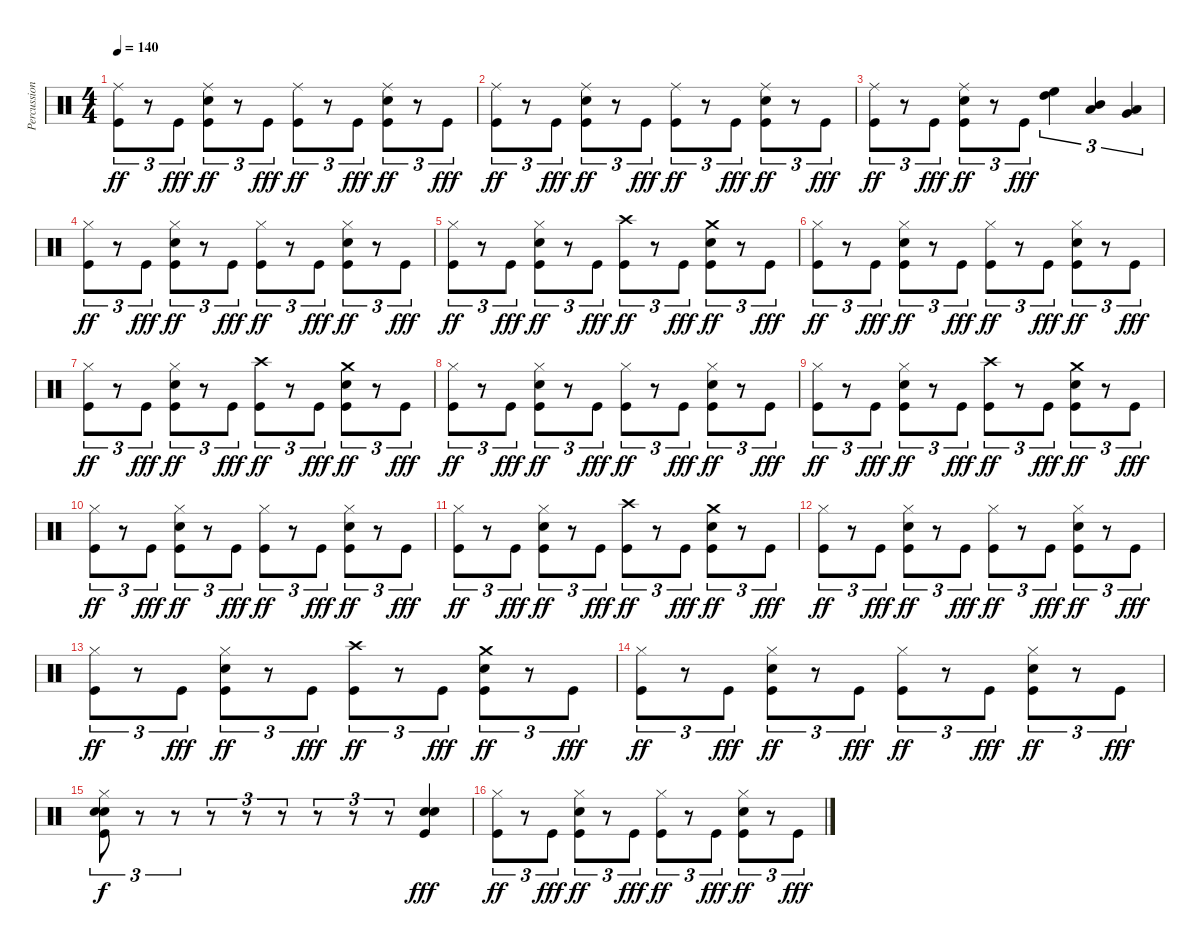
\track ("Percussions" "Percussion") {instrument percussion}
\staff {score}
\articulation defaults
\ts (4 4)
\tempo 140
\clef neutral
\ks c
("Ride (middle)" "Kick (hit)").8{tu (3 2) dy ff} r.8{tu (3 2)} "Kick (hit)".8{tu (3 2) dy fff} ("Ride (middle)" "Snare (hit) 2" "Kick (hit)").8{tu (3 2) dy ff} r.8{tu (3 2)} "Kick (hit)".8{tu (3 2) dy fff} ("Ride (middle)" "Kick (hit)").8{tu (3 2) dy ff} r.8{tu (3 2)} "Kick (hit)".8{tu (3 2) dy fff} ("Ride (middle)" "Snare (hit) 2" "Kick (hit)").8{tu (3 2) dy ff} r.8{tu (3 2)} "Kick (hit)".8{tu (3 2) dy fff} |
("Ride (middle)" "Kick (hit)").8{tu (3 2) dy ff} r.8{tu (3 2)} "Kick (hit)".8{tu (3 2) dy fff} ("Ride (middle)" "Snare (hit) 2" "Kick (hit)").8{tu (3 2) dy ff} r.8{tu (3 2)} "Kick (hit)".8{tu (3 2) dy fff} ("Ride (middle)" "Kick (hit)").8{tu (3 2) dy ff} r.8{tu (3 2)} "Kick (hit)".8{tu (3 2) dy fff} ("Ride (middle)" "Snare (hit) 2" "Kick (hit)").8{tu (3 2) dy ff} r.8{tu (3 2)} "Kick (hit)".8{tu (3 2) dy fff} |
("Ride (middle)" "Kick (hit)").8{tu (3 2) dy ff} r.8{tu (3 2)} "Kick (hit)".8{tu (3 2) dy fff} ("Ride (middle)" "Snare (hit) 2" "Kick (hit)").8{tu (3 2) dy ff} r.8{tu (3 2)} "Kick (hit)".8{tu (3 2) dy fff} ("High Floor Tom (hit)" "High Tom (hit)").4{tu (3 2)} ("Mid Tom (hit)" "Low Tom (hit)").4{tu (3 2)} ("Very Low Tom (hit)" "Low Floor Tom (hit)").4{tu (3 2)} |
("Hi-Hat (closed)" "Kick (hit)").8{tu (3 2) dy ff} r.8{tu (3 2)} "Kick (hit)".8{tu (3 2) dy fff} ("Hi-Hat (closed)" "Snare (hit) 2" "Kick (hit)").8{tu (3 2) dy ff} r.8{tu (3 2)} "Kick (hit)".8{tu (3 2) dy fff} ("Hi-Hat (closed)" "Kick (hit)").8{tu (3 2) dy ff} r.8{tu (3 2)} "Kick (hit)".8{tu (3 2) dy fff} ("Hi-Hat (closed)" "Snare (hit) 2" "Kick (hit)").8{tu (3 2) dy ff} r.8{tu (3 2)} "Kick (hit)".8{tu (3 2) dy fff} |
("Hi-Hat (closed)" "Kick (hit)").8{tu (3 2) dy ff} r.8{tu (3 2)} "Kick (hit)".8{tu (3 2) dy fff} ("Hi-Hat (closed)" "Snare (hit) 2" "Kick (hit)").8{tu (3 2) dy ff} r.8{tu (3 2)} "Kick (hit)".8{tu (3 2) dy fff} ("Crash high (hit)" "Kick (hit)").8{tu (3 2) dy ff} r.8{tu (3 2)} "Kick (hit)".8{tu (3 2) dy fff} ("Crash medium (hit)" "Snare (hit) 2" "Kick (hit)").8{tu (3 2) dy ff} r.8{tu (3 2)} "Kick (hit)".8{tu (3 2) dy fff} |
("Hi-Hat (closed)" "Kick (hit)").8{tu (3 2) dy ff} r.8{tu (3 2)} "Kick (hit)".8{tu (3 2) dy fff} ("Hi-Hat (closed)" "Snare (hit) 2" "Kick (hit)").8{tu (3 2) dy ff} r.8{tu (3 2)} "Kick (hit)".8{tu (3 2) dy fff} ("Hi-Hat (closed)" "Kick (hit)").8{tu (3 2) dy ff} r.8{tu (3 2)} "Kick (hit)".8{tu (3 2) dy fff} ("Hi-Hat (closed)" "Snare (hit) 2" "Kick (hit)").8{tu (3 2) dy ff} r.8{tu (3 2)} "Kick (hit)".8{tu (3 2) dy fff} |
("Hi-Hat (closed)" "Kick (hit)").8{tu (3 2) dy ff} r.8{tu (3 2)} "Kick (hit)".8{tu (3 2) dy fff} ("Hi-Hat (closed)" "Snare (hit) 2" "Kick (hit)").8{tu (3 2) dy ff} r.8{tu (3 2)} "Kick (hit)".8{tu (3 2) dy fff} ("Crash high (hit)" "Kick (hit)").8{tu (3 2) dy ff} r.8{tu (3 2)} "Kick (hit)".8{tu (3 2) dy fff} ("Crash medium (hit)" "Snare (hit) 2" "Kick (hit)").8{tu (3 2) dy ff} r.8{tu (3 2)} "Kick (hit)".8{tu (3 2) dy fff} |
("Hi-Hat (closed)" "Kick (hit)").8{tu (3 2) dy ff} r.8{tu (3 2)} "Kick (hit)".8{tu (3 2) dy fff} ("Hi-Hat (closed)" "Snare (hit) 2" "Kick (hit)").8{tu (3 2) dy ff} r.8{tu (3 2)} "Kick (hit)".8{tu (3 2) dy fff} ("Hi-Hat (closed)" "Kick (hit)").8{tu (3 2) dy ff} r.8{tu (3 2)} "Kick (hit)".8{tu (3 2) dy fff} ("Hi-Hat (closed)" "Snare (hit) 2" "Kick (hit)").8{tu (3 2) dy ff} r.8{tu (3 2)} "Kick (hit)".8{tu (3 2) dy fff} |
("Hi-Hat (closed)" "Kick (hit)").8{tu (3 2) dy ff} r.8{tu (3 2)} "Kick (hit)".8{tu (3 2) dy fff} ("Hi-Hat (closed)" "Snare (hit) 2" "Kick (hit)").8{tu (3 2) dy ff} r.8{tu (3 2)} "Kick (hit)".8{tu (3 2) dy fff} ("Crash high (hit)" "Kick (hit)").8{tu (3 2) dy ff} r.8{tu (3 2)} "Kick (hit)".8{tu (3 2) dy fff} ("Crash medium (hit)" "Snare (hit) 2" "Kick (hit)").8{tu (3 2) dy ff} r.8{tu (3 2)} "Kick (hit)".8{tu (3 2) dy fff} |
("Hi-Hat (closed)" "Kick (hit)").8{tu (3 2) dy ff} r.8{tu (3 2)} "Kick (hit)".8{tu (3 2) dy fff} ("Hi-Hat (closed)" "Snare (hit) 2" "Kick (hit)").8{tu (3 2) dy ff} r.8{tu (3 2)} "Kick (hit)".8{tu (3 2) dy fff} ("Hi-Hat (closed)" "Kick (hit)").8{tu (3 2) dy ff} r.8{tu (3 2)} "Kick (hit)".8{tu (3 2) dy fff} ("Hi-Hat (closed)" "Snare (hit) 2" "Kick (hit)").8{tu (3 2) dy ff} r.8{tu (3 2)} "Kick (hit)".8{tu (3 2) dy fff} |
("Hi-Hat (closed)" "Kick (hit)").8{tu (3 2) dy ff} r.8{tu (3 2)} "Kick (hit)".8{tu (3 2) dy fff} ("Hi-Hat (closed)" "Snare (hit) 2" "Kick (hit)").8{tu (3 2) dy ff} r.8{tu (3 2)} "Kick (hit)".8{tu (3 2) dy fff} ("Crash high (hit)" "Kick (hit)").8{tu (3 2) dy ff} r.8{tu (3 2)} "Kick (hit)".8{tu (3 2) dy fff} ("Crash medium (hit)" "Snare (hit) 2" "Kick (hit)").8{tu (3 2) dy ff} r.8{tu (3 2)} "Kick (hit)".8{tu (3 2) dy fff} |
("Hi-Hat (closed)" "Kick (hit)").8{tu (3 2) dy ff} r.8{tu (3 2)} "Kick (hit)".8{tu (3 2) dy fff} ("Hi-Hat (closed)" "Snare (hit) 2" "Kick (hit)").8{tu (3 2) dy ff} r.8{tu (3 2)} "Kick (hit)".8{tu (3 2) dy fff} ("Hi-Hat (closed)" "Kick (hit)").8{tu (3 2) dy ff} r.8{tu (3 2)} "Kick (hit)".8{tu (3 2) dy fff} ("Hi-Hat (closed)" "Snare (hit) 2" "Kick (hit)").8{tu (3 2) dy ff} r.8{tu (3 2)} "Kick (hit)".8{tu (3 2) dy fff} |
("Hi-Hat (closed)" "Kick (hit)").8{tu (3 2) dy ff} r.8{tu (3 2)} "Kick (hit)".8{tu (3 2) dy fff} ("Hi-Hat (closed)" "Snare (hit) 2" "Kick (hit)").8{tu (3 2) dy ff} r.8{tu (3 2)} "Kick (hit)".8{tu (3 2) dy fff} ("Crash high (hit)" "Kick (hit)").8{tu (3 2) dy ff} r.8{tu (3 2)} "Kick (hit)".8{tu (3 2) dy fff} ("Crash medium (hit)" "Snare (hit) 2" "Kick (hit)").8{tu (3 2) dy ff} r.8{tu (3 2)} "Kick (hit)".8{tu (3 2) dy fff} |
("Hi-Hat (closed)" "Kick (hit)").8{tu (3 2) dy ff} r.8{tu (3 2)} "Kick (hit)".8{tu (3 2) dy fff} ("Hi-Hat (closed)" "Snare (hit) 2" "Kick (hit)").8{tu (3 2) dy ff} r.8{tu (3 2)} "Kick (hit)".8{tu (3 2) dy fff} ("Hi-Hat (closed)" "Kick (hit)").8{tu (3 2) dy ff} r.8{tu (3 2)} "Kick (hit)".8{tu (3 2) dy fff} ("Hi-Hat (closed)" "Snare (hit) 2" "Kick (hit)").8{tu (3 2) dy ff} r.8{tu (3 2)} "Kick (hit)".8{tu (3 2) dy fff} |
("Hi-Hat (closed)" "Snare (hit) 2" "Snare (hit) 2" "Kick (hit)").8{tu (3 2) dy f} r.8{tu (3 2)} r.8{tu (3 2)} r.8{tu (3 2)} r.8{tu (3 2)} r.8{tu (3 2)} r.8{tu (3 2)} r.8{tu (3 2)} r.8{tu (3 2)} ("Snare (hit) 2" "Snare (hit) 2" "Kick (hit)").4{dy fff} |
("Hi-Hat (closed)" "Kick (hit)").8{tu (3 2) dy ff} r.8{tu (3 2)} "Kick (hit)".8{tu (3 2) dy fff} ("Hi-Hat (closed)" "Snare (hit) 2" "Kick (hit)").8{tu (3 2) dy ff} r.8{tu (3 2)} "Kick (hit)".8{tu (3 2) dy fff} ("Hi-Hat (closed)" "Kick (hit)").8{tu (3 2) dy ff} r.8{tu (3 2)} "Kick (hit)".8{tu (3 2) dy fff} ("Hi-Hat (closed)" "Snare (hit) 2" "Kick (hit)").8{tu (3 2) dy ff} r.8{tu (3 2)} "Kick (hit)".8{tu (3 2) dy fff}
